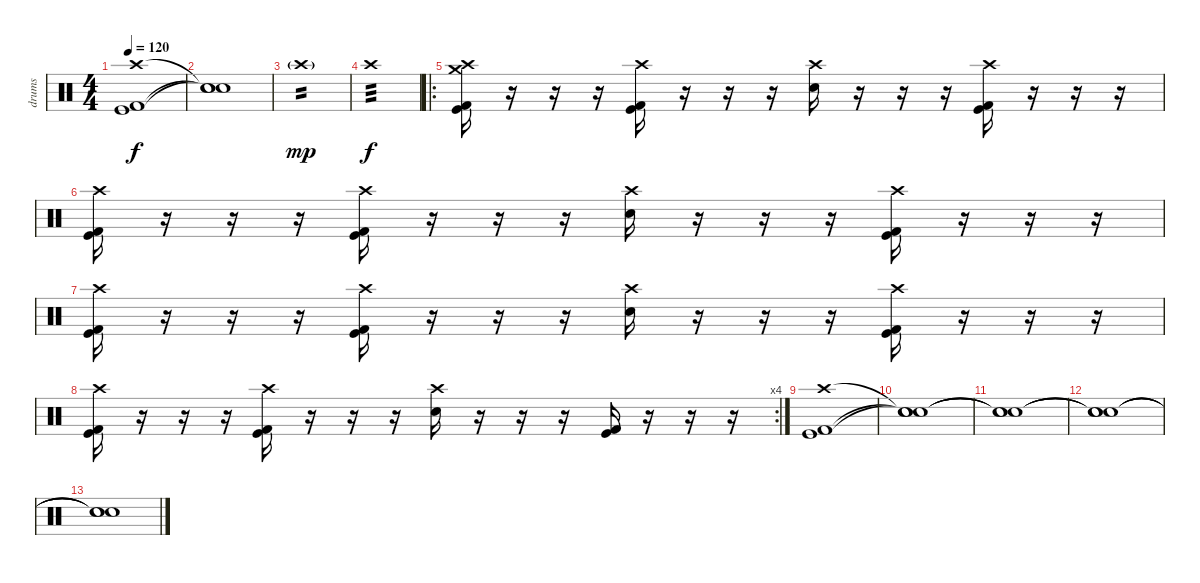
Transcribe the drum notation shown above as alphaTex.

\track ("drums" "drums") {instrument percussion}
\staff {score}
\articulation defaults
\ts (4 4)
\tempo 120
\clef neutral
\ks c
("Crash high (hit)" "Kick (hit)" "Kick (hit) 2").1{dy f} |
("Snare (hit)"{t} "Snare (hit)"{t} "Snare (hit)"{t}).1 |
"Crash high (hit)"{g}.1{tp 2 dy mp} |
"Crash high (hit)".1{tp 3 dy f} |
\ro
("Crash medium (hit)" "Crash high (hit)" "Kick (hit)" "Kick (hit) 2").16 r.16 r.16 r.16 ("Crash high (hit)" "Kick (hit)" "Kick (hit) 2").16 r.16 r.16 r.16 ("Crash high (hit)" "Electric Snare (hit)").16 r.16 r.16 r.16 ("Crash high (hit)" "Kick (hit)" "Kick (hit) 2").16 r.16 r.16 r.16 |
("Crash high (hit)" "Kick (hit)" "Kick (hit) 2").16 r.16 r.16 r.16 ("Crash high (hit)" "Kick (hit)" "Kick (hit) 2").16 r.16 r.16 r.16 ("Crash high (hit)" "Electric Snare (hit)").16 r.16 r.16 r.16 ("Crash high (hit)" "Kick (hit)" "Kick (hit) 2").16 r.16 r.16 r.16 |
("Crash high (hit)" "Kick (hit)" "Kick (hit) 2").16 r.16 r.16 r.16 ("Crash high (hit)" "Kick (hit)" "Kick (hit) 2").16 r.16 r.16 r.16 ("Crash high (hit)" "Electric Snare (hit)").16 r.16 r.16 r.16 ("Crash high (hit)" "Kick (hit)" "Kick (hit) 2").16 r.16 r.16 r.16 |
\rc 4
("Crash high (hit)" "Kick (hit)" "Kick (hit) 2").16 r.16 r.16 r.16 ("Crash high (hit)" "Kick (hit)" "Kick (hit) 2").16 r.16 r.16 r.16 ("Crash high (hit)" "Electric Snare (hit)").16 r.16 r.16 r.16 ("Kick (hit)" "Kick (hit) 2").16 r.16 r.16 r.16 |
("Crash high (hit)" "Kick (hit)" "Kick (hit) 2").1 |
("Snare (hit)"{t} "Snare (hit)"{t} "Snare (hit)"{t}).1 |
("Snare (hit)"{t} "Snare (hit)"{t} "Snare (hit)"{t}).1 |
("Snare (hit)"{t} "Snare (hit)"{t} "Snare (hit)"{t}).1 |
("Snare (hit)"{t} "Snare (hit)"{t} "Snare (hit)"{t}).1
